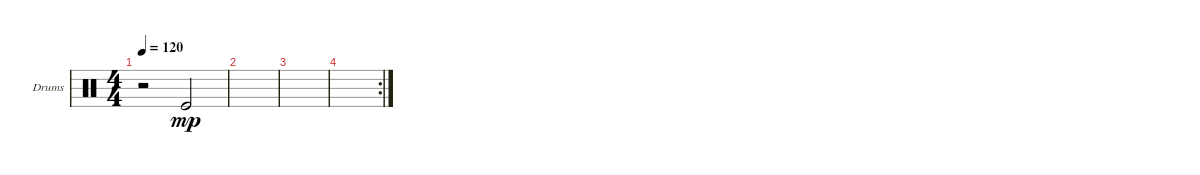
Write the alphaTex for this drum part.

\defaultSystemsLayout 4
\bracketExtendMode groupsimilarinstruments
\firstSystemTrackNameOrientation horizontal
\otherSystemsTrackNameOrientation horizontal
\track ("Drumkit" "Drums") {instrument percussion}
\staff {score}
\articulation defaults
\ts (4 4)
\tempo 120
\clef neutral
\ks c
r.2{dy mp} "Kick (hit)".2 |
|
|
\rc 2
